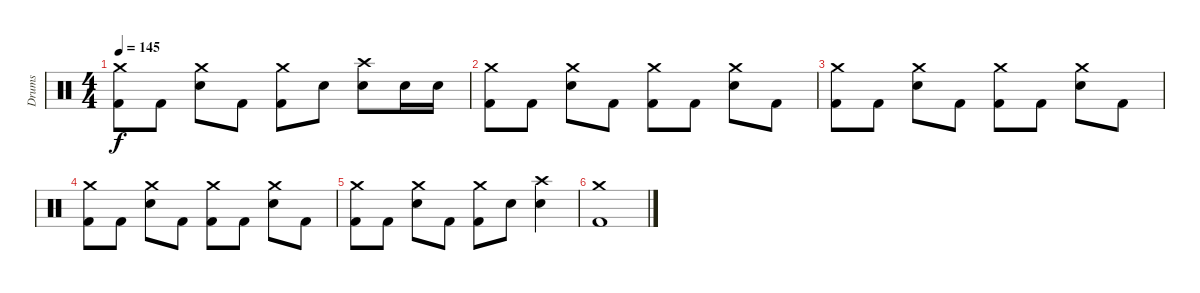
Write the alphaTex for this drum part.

\track ("Drums" "Drums") {instrument percussion}
\staff {score}
\articulation defaults
\ts (4 4)
\tempo 145
\clef neutral
\ks c
("Crash medium (hit)" "Kick (hit) 2").8{dy f} "Kick (hit) 2".8 ("Crash medium (hit)" "Electric Snare (hit)").8 "Kick (hit) 2".8 ("Crash medium (hit)" "Kick (hit) 2").8 "Electric Snare (hit)".8 ("Crash high (hit)" "Electric Snare (hit)").8 "Electric Snare (hit)".16 "Electric Snare (hit)".16 |
("Crash medium (hit)" "Kick (hit) 2").8 "Kick (hit) 2".8 ("Crash medium (hit)" "Electric Snare (hit)").8 "Kick (hit) 2".8 ("Crash medium (hit)" "Kick (hit) 2").8 "Kick (hit) 2".8 ("Crash medium (hit)" "Electric Snare (hit)").8 "Kick (hit) 2".8 |
("Crash medium (hit)" "Kick (hit) 2").8 "Kick (hit) 2".8 ("Crash medium (hit)" "Electric Snare (hit)").8 "Kick (hit) 2".8 ("Crash medium (hit)" "Kick (hit) 2").8 "Kick (hit) 2".8 ("Crash medium (hit)" "Electric Snare (hit)").8 "Kick (hit) 2".8 |
("Crash medium (hit)" "Kick (hit) 2").8 "Kick (hit) 2".8 ("Crash medium (hit)" "Electric Snare (hit)").8 "Kick (hit) 2".8 ("Crash medium (hit)" "Kick (hit) 2").8 "Kick (hit) 2".8 ("Crash medium (hit)" "Electric Snare (hit)").8 "Kick (hit) 2".8 |
("Crash medium (hit)" "Kick (hit) 2").8 "Kick (hit) 2".8 ("Crash medium (hit)" "Electric Snare (hit)").8 "Kick (hit) 2".8 ("Crash medium (hit)" "Kick (hit) 2").8 "Electric Snare (hit)".8 ("Crash high (hit)" "Electric Snare (hit)").4 |
("Crash medium (hit)" "Kick (hit) 2").1
